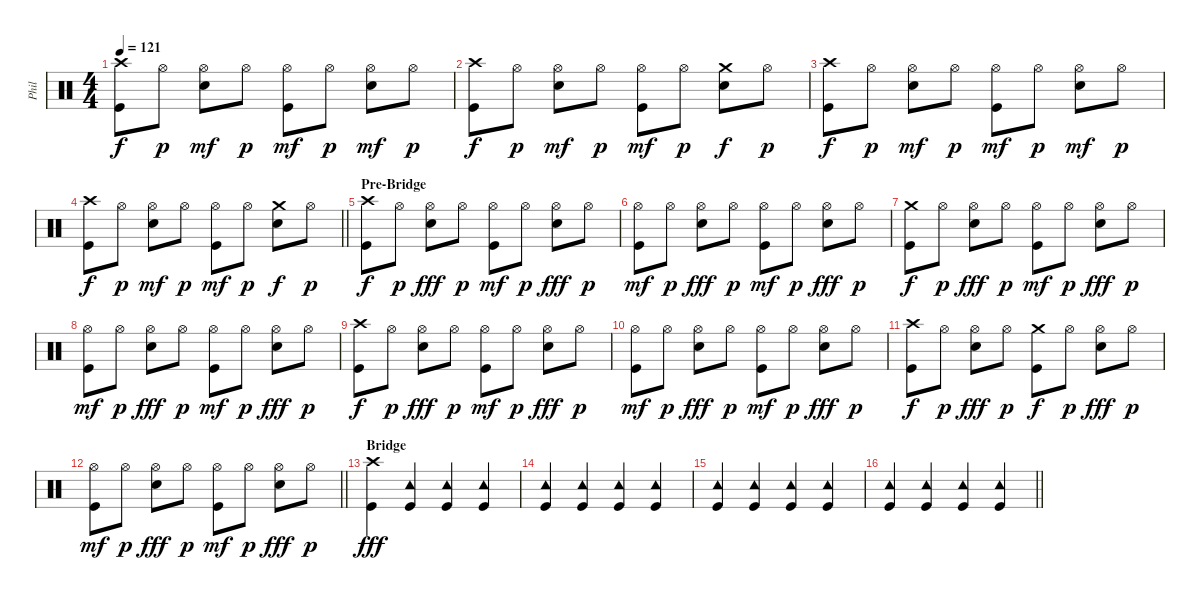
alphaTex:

\track ("Phil" "Phil") {instrument percussion}
\staff {score}
\articulation defaults
\ts (4 4)
\tempo 121
\clef neutral
\ks c
("Crash high (hit)" "Kick (hit)").8{dy f} "Hi-Hat (open)".8{dy p} ("Hi-Hat (open)" "Snare (hit) 2").8{dy mf} "Hi-Hat (open)".8{dy p} ("Hi-Hat (open)" "Kick (hit)").8{dy mf} "Hi-Hat (open)".8{dy p} ("Hi-Hat (open)" "Snare (hit) 2").8{dy mf} "Hi-Hat (open)".8{dy p} |
("Crash high (hit)" "Kick (hit)").8{dy f} "Hi-Hat (open)".8{dy p} ("Hi-Hat (open)" "Snare (hit) 2").8{dy mf} "Hi-Hat (open)".8{dy p} ("Hi-Hat (open)" "Kick (hit)").8{dy mf} "Hi-Hat (open)".8{dy p} ("Crash medium (hit)" "Snare (hit) 2").8{dy f} "Hi-Hat (open)".8{dy p} |
("Crash high (hit)" "Kick (hit)").8{dy f} "Hi-Hat (open)".8{dy p} ("Hi-Hat (open)" "Snare (hit) 2").8{dy mf} "Hi-Hat (open)".8{dy p} ("Hi-Hat (open)" "Kick (hit)").8{dy mf} "Hi-Hat (open)".8{dy p} ("Hi-Hat (open)" "Snare (hit) 2").8{dy mf} "Hi-Hat (open)".8{dy p} |
\barLineRight lightlight
("Crash high (hit)" "Kick (hit)").8{dy f} "Hi-Hat (open)".8{dy p} ("Hi-Hat (open)" "Snare (hit) 2").8{dy mf} "Hi-Hat (open)".8{dy p} ("Hi-Hat (open)" "Kick (hit)").8{dy mf} "Hi-Hat (open)".8{dy p} ("Crash medium (hit)" "Snare (hit) 2").8{dy f} "Hi-Hat (open)".8{dy p} |
\section ("" "Pre-Bridge")
("Crash high (hit)" "Kick (hit)").8{dy f} "Hi-Hat (open)".8{dy p} ("Hi-Hat (open)" "Snare (hit) 2").8{dy fff} "Hi-Hat (open)".8{dy p} ("Hi-Hat (open)" "Kick (hit)").8{dy mf} "Hi-Hat (open)".8{dy p} ("Hi-Hat (open)" "Snare (hit) 2").8{dy fff} "Hi-Hat (open)".8{dy p} |
("Hi-Hat (open)" "Kick (hit)").8{dy mf} "Hi-Hat (open)".8{dy p} ("Hi-Hat (open)" "Snare (hit) 2").8{dy fff} "Hi-Hat (open)".8{dy p} ("Hi-Hat (open)" "Kick (hit)").8{dy mf} "Hi-Hat (open)".8{dy p} ("Hi-Hat (open)" "Snare (hit) 2").8{dy fff} "Hi-Hat (open)".8{dy p} |
("Crash medium (hit)" "Kick (hit)").8{dy f} "Hi-Hat (open)".8{dy p} ("Hi-Hat (open)" "Snare (hit) 2").8{dy fff} "Hi-Hat (open)".8{dy p} ("Hi-Hat (open)" "Kick (hit)").8{dy mf} "Hi-Hat (open)".8{dy p} ("Hi-Hat (open)" "Snare (hit) 2").8{dy fff} "Hi-Hat (open)".8{dy p} |
("Hi-Hat (open)" "Kick (hit)").8{dy mf} "Hi-Hat (open)".8{dy p} ("Hi-Hat (open)" "Snare (hit) 2").8{dy fff} "Hi-Hat (open)".8{dy p} ("Hi-Hat (open)" "Kick (hit)").8{dy mf} "Hi-Hat (open)".8{dy p} ("Hi-Hat (open)" "Snare (hit) 2").8{dy fff} "Hi-Hat (open)".8{dy p} |
("Crash high (hit)" "Kick (hit)").8{dy f} "Hi-Hat (open)".8{dy p} ("Hi-Hat (open)" "Snare (hit) 2").8{dy fff} "Hi-Hat (open)".8{dy p} ("Hi-Hat (open)" "Kick (hit)").8{dy mf} "Hi-Hat (open)".8{dy p} ("Hi-Hat (open)" "Snare (hit) 2").8{dy fff} "Hi-Hat (open)".8{dy p} |
("Hi-Hat (open)" "Kick (hit)").8{dy mf} "Hi-Hat (open)".8{dy p} ("Hi-Hat (open)" "Snare (hit) 2").8{dy fff} "Hi-Hat (open)".8{dy p} ("Hi-Hat (open)" "Kick (hit)").8{dy mf} "Hi-Hat (open)".8{dy p} ("Hi-Hat (open)" "Snare (hit) 2").8{dy fff} "Hi-Hat (open)".8{dy p} |
("Crash high (hit)" "Kick (hit)").8{dy f} "Hi-Hat (open)".8{dy p} ("Hi-Hat (open)" "Snare (hit) 2").8{dy fff} "Hi-Hat (open)".8{dy p} ("Crash medium (hit)" "Kick (hit)").8{dy f} "Hi-Hat (open)".8{dy p} ("Hi-Hat (open)" "Snare (hit) 2").8{dy fff} "Hi-Hat (open)".8{dy p} |
\barLineRight lightlight
("Hi-Hat (open)" "Kick (hit)").8{dy mf} "Hi-Hat (open)".8{dy p} ("Hi-Hat (open)" "Snare (hit) 2").8{dy fff} "Hi-Hat (open)".8{dy p} ("Hi-Hat (open)" "Kick (hit)").8{dy mf} "Hi-Hat (open)".8{dy p} ("Hi-Hat (open)" "Snare (hit) 2").8{dy fff} "Hi-Hat (open)".8{dy p} |
\section ("" "Bridge")
("Crash high (hit)" "Kick (hit)").4{dy fff} ("Tambourine (hit)" "Kick (hit)").4 ("Tambourine (hit)" "Kick (hit)").4 ("Tambourine (hit)" "Kick (hit)").4 |
("Tambourine (hit)" "Kick (hit)").4 ("Tambourine (hit)" "Kick (hit)").4 ("Tambourine (hit)" "Kick (hit)").4 ("Tambourine (hit)" "Kick (hit)").4 |
("Tambourine (hit)" "Kick (hit)").4 ("Tambourine (hit)" "Kick (hit)").4 ("Tambourine (hit)" "Kick (hit)").4 ("Tambourine (hit)" "Kick (hit)").4 |
\barLineRight lightlight
("Tambourine (hit)" "Kick (hit)").4 ("Tambourine (hit)" "Kick (hit)").4 ("Tambourine (hit)" "Kick (hit)").4 ("Tambourine (hit)" "Kick (hit)").4
